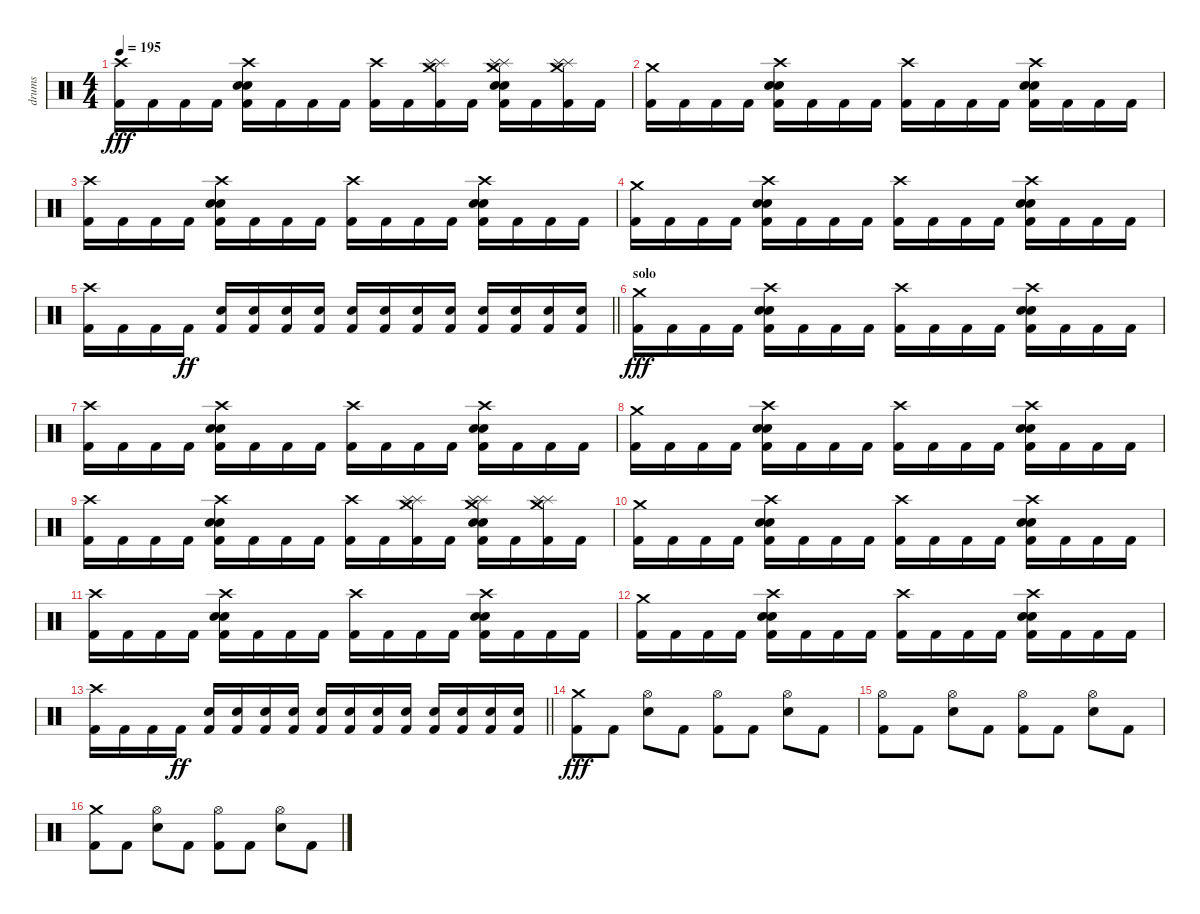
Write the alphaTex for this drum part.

\track ("drums" "drums") {instrument percussion bank 16}
\staff {score}
\articulation defaults
\ts (4 4)
\tempo 195
\clef neutral
\ks c
("Crash high (hit)" "Kick (hit) 2").16{dy fff} "Kick (hit) 2".16 "Kick (hit) 2".16 "Kick (hit) 2".16 ("Crash high (hit)" "Electric Snare (hit)" "Electric Snare (hit)" "Kick (hit) 2").16 "Kick (hit) 2".16 "Kick (hit) 2".16 "Kick (hit) 2".16 ("Crash high (hit)" "Kick (hit) 2").16 "Kick (hit) 2".16 ("Splash (hit)" "Splash (hit)" "Crash medium (hit)" "Kick (hit) 2").16 "Kick (hit) 2".16 ("Splash (hit)" "Splash (hit)" "Crash medium (hit)" "Electric Snare (hit)" "Electric Snare (hit)" "Kick (hit) 2").16 "Kick (hit) 2".16 ("Splash (hit)" "Splash (hit)" "Crash medium (hit)" "Kick (hit) 2").16 "Kick (hit) 2".16 |
("Crash medium (hit)" "Kick (hit) 2").16 "Kick (hit) 2".16 "Kick (hit) 2".16 "Kick (hit) 2".16 ("Crash high (hit)" "Electric Snare (hit)" "Electric Snare (hit)" "Kick (hit) 2").16 "Kick (hit) 2".16 "Kick (hit) 2".16 "Kick (hit) 2".16 ("Crash high (hit)" "Kick (hit) 2").16 "Kick (hit) 2".16 "Kick (hit) 2".16 "Kick (hit) 2".16 ("Crash high (hit)" "Electric Snare (hit)" "Electric Snare (hit)" "Kick (hit) 2").16 "Kick (hit) 2".16 "Kick (hit) 2".16 "Kick (hit) 2".16 |
("Crash high (hit)" "Kick (hit) 2").16 "Kick (hit) 2".16 "Kick (hit) 2".16 "Kick (hit) 2".16 ("Crash high (hit)" "Electric Snare (hit)" "Electric Snare (hit)" "Kick (hit) 2").16 "Kick (hit) 2".16 "Kick (hit) 2".16 "Kick (hit) 2".16 ("Crash high (hit)" "Kick (hit) 2").16 "Kick (hit) 2".16 "Kick (hit) 2".16 "Kick (hit) 2".16 ("Crash high (hit)" "Electric Snare (hit)" "Electric Snare (hit)" "Kick (hit) 2").16 "Kick (hit) 2".16 "Kick (hit) 2".16 "Kick (hit) 2".16 |
("Crash medium (hit)" "Kick (hit) 2").16 "Kick (hit) 2".16 "Kick (hit) 2".16 "Kick (hit) 2".16 ("Crash high (hit)" "Electric Snare (hit)" "Electric Snare (hit)" "Kick (hit) 2").16 "Kick (hit) 2".16 "Kick (hit) 2".16 "Kick (hit) 2".16 ("Crash high (hit)" "Kick (hit) 2").16 "Kick (hit) 2".16 "Kick (hit) 2".16 "Kick (hit) 2".16 ("Crash high (hit)" "Electric Snare (hit)" "Electric Snare (hit)" "Kick (hit) 2").16 "Kick (hit) 2".16 "Kick (hit) 2".16 "Kick (hit) 2".16 |
\barLineRight lightlight
("Crash high (hit)" "Kick (hit) 2").16 "Kick (hit) 2".16 "Kick (hit) 2".16 "Kick (hit) 2".16{dy ff} ("Electric Snare (hit)" "Kick (hit) 2").16 ("Electric Snare (hit)" "Kick (hit) 2").16 ("Electric Snare (hit)" "Kick (hit) 2").16 ("Electric Snare (hit)" "Kick (hit) 2").16 ("Electric Snare (hit)" "Kick (hit) 2").16 ("Electric Snare (hit)" "Kick (hit) 2").16 ("Electric Snare (hit)" "Kick (hit) 2").16 ("Electric Snare (hit)" "Kick (hit) 2").16 ("Electric Snare (hit)" "Kick (hit) 2").16 ("Electric Snare (hit)" "Kick (hit) 2").16 ("Electric Snare (hit)" "Kick (hit) 2").16 ("Electric Snare (hit)" "Kick (hit) 2").16 |
\section ("" "solo")
("Crash medium (hit)" "Kick (hit) 2").16{dy fff} "Kick (hit) 2".16 "Kick (hit) 2".16 "Kick (hit) 2".16 ("Crash high (hit)" "Electric Snare (hit)" "Electric Snare (hit)" "Kick (hit) 2").16 "Kick (hit) 2".16 "Kick (hit) 2".16 "Kick (hit) 2".16 ("Crash high (hit)" "Kick (hit) 2").16 "Kick (hit) 2".16 "Kick (hit) 2".16 "Kick (hit) 2".16 ("Crash high (hit)" "Electric Snare (hit)" "Electric Snare (hit)" "Kick (hit) 2").16 "Kick (hit) 2".16 "Kick (hit) 2".16 "Kick (hit) 2".16 |
("Crash high (hit)" "Kick (hit) 2").16 "Kick (hit) 2".16 "Kick (hit) 2".16 "Kick (hit) 2".16 ("Crash high (hit)" "Electric Snare (hit)" "Electric Snare (hit)" "Kick (hit) 2").16 "Kick (hit) 2".16 "Kick (hit) 2".16 "Kick (hit) 2".16 ("Crash high (hit)" "Kick (hit) 2").16 "Kick (hit) 2".16 "Kick (hit) 2".16 "Kick (hit) 2".16 ("Crash high (hit)" "Electric Snare (hit)" "Electric Snare (hit)" "Kick (hit) 2").16 "Kick (hit) 2".16 "Kick (hit) 2".16 "Kick (hit) 2".16 |
("Crash medium (hit)" "Kick (hit) 2").16 "Kick (hit) 2".16 "Kick (hit) 2".16 "Kick (hit) 2".16 ("Crash high (hit)" "Electric Snare (hit)" "Electric Snare (hit)" "Kick (hit) 2").16 "Kick (hit) 2".16 "Kick (hit) 2".16 "Kick (hit) 2".16 ("Crash high (hit)" "Kick (hit) 2").16 "Kick (hit) 2".16 "Kick (hit) 2".16 "Kick (hit) 2".16 ("Crash high (hit)" "Electric Snare (hit)" "Electric Snare (hit)" "Kick (hit) 2").16 "Kick (hit) 2".16 "Kick (hit) 2".16 "Kick (hit) 2".16 |
("Crash high (hit)" "Kick (hit) 2").16 "Kick (hit) 2".16 "Kick (hit) 2".16 "Kick (hit) 2".16 ("Crash high (hit)" "Electric Snare (hit)" "Electric Snare (hit)" "Kick (hit) 2").16 "Kick (hit) 2".16 "Kick (hit) 2".16 "Kick (hit) 2".16 ("Crash high (hit)" "Kick (hit) 2").16 "Kick (hit) 2".16 ("Splash (hit)" "Splash (hit)" "Crash medium (hit)" "Kick (hit) 2").16 "Kick (hit) 2".16 ("Splash (hit)" "Splash (hit)" "Crash medium (hit)" "Electric Snare (hit)" "Electric Snare (hit)" "Kick (hit) 2").16 "Kick (hit) 2".16 ("Splash (hit)" "Splash (hit)" "Crash medium (hit)" "Kick (hit) 2").16 "Kick (hit) 2".16 |
("Crash medium (hit)" "Kick (hit) 2").16 "Kick (hit) 2".16 "Kick (hit) 2".16 "Kick (hit) 2".16 ("Crash high (hit)" "Electric Snare (hit)" "Electric Snare (hit)" "Kick (hit) 2").16 "Kick (hit) 2".16 "Kick (hit) 2".16 "Kick (hit) 2".16 ("Crash high (hit)" "Kick (hit) 2").16 "Kick (hit) 2".16 "Kick (hit) 2".16 "Kick (hit) 2".16 ("Crash high (hit)" "Electric Snare (hit)" "Electric Snare (hit)" "Kick (hit) 2").16 "Kick (hit) 2".16 "Kick (hit) 2".16 "Kick (hit) 2".16 |
("Crash high (hit)" "Kick (hit) 2").16 "Kick (hit) 2".16 "Kick (hit) 2".16 "Kick (hit) 2".16 ("Crash high (hit)" "Electric Snare (hit)" "Electric Snare (hit)" "Kick (hit) 2").16 "Kick (hit) 2".16 "Kick (hit) 2".16 "Kick (hit) 2".16 ("Crash high (hit)" "Kick (hit) 2").16 "Kick (hit) 2".16 "Kick (hit) 2".16 "Kick (hit) 2".16 ("Crash high (hit)" "Electric Snare (hit)" "Electric Snare (hit)" "Kick (hit) 2").16 "Kick (hit) 2".16 "Kick (hit) 2".16 "Kick (hit) 2".16 |
("Crash medium (hit)" "Kick (hit) 2").16 "Kick (hit) 2".16 "Kick (hit) 2".16 "Kick (hit) 2".16 ("Crash high (hit)" "Electric Snare (hit)" "Electric Snare (hit)" "Kick (hit) 2").16 "Kick (hit) 2".16 "Kick (hit) 2".16 "Kick (hit) 2".16 ("Crash high (hit)" "Kick (hit) 2").16 "Kick (hit) 2".16 "Kick (hit) 2".16 "Kick (hit) 2".16 ("Crash high (hit)" "Electric Snare (hit)" "Electric Snare (hit)" "Kick (hit) 2").16 "Kick (hit) 2".16 "Kick (hit) 2".16 "Kick (hit) 2".16 |
\barLineRight lightlight
("Crash high (hit)" "Kick (hit) 2").16 "Kick (hit) 2".16 "Kick (hit) 2".16 "Kick (hit) 2".16{dy ff} ("Electric Snare (hit)" "Kick (hit) 2").16 ("Electric Snare (hit)" "Kick (hit) 2").16 ("Electric Snare (hit)" "Kick (hit) 2").16 ("Electric Snare (hit)" "Kick (hit) 2").16 ("Electric Snare (hit)" "Kick (hit) 2").16 ("Electric Snare (hit)" "Kick (hit) 2").16 ("Electric Snare (hit)" "Kick (hit) 2").16 ("Electric Snare (hit)" "Kick (hit) 2").16 ("Electric Snare (hit)" "Kick (hit) 2").16 ("Electric Snare (hit)" "Kick (hit) 2").16 ("Electric Snare (hit)" "Kick (hit) 2").16 ("Electric Snare (hit)" "Kick (hit) 2").16 |
("Crash medium (hit)" "Kick (hit) 2").8{dy fff} "Kick (hit) 2".8 ("Hi-Hat (open)" "Electric Snare (hit)").8 "Kick (hit) 2".8 ("Hi-Hat (open)" "Kick (hit) 2").8 "Kick (hit) 2".8 ("Hi-Hat (open)" "Electric Snare (hit)").8 "Kick (hit) 2".8 |
("Hi-Hat (open)" "Kick (hit) 2").8 "Kick (hit) 2".8 ("Hi-Hat (open)" "Electric Snare (hit)").8 "Kick (hit) 2".8 ("Hi-Hat (open)" "Kick (hit) 2").8 "Kick (hit) 2".8 ("Hi-Hat (open)" "Electric Snare (hit)").8 "Kick (hit) 2".8 |
("Crash medium (hit)" "Kick (hit) 2").8 "Kick (hit) 2".8 ("Hi-Hat (open)" "Electric Snare (hit)").8 "Kick (hit) 2".8 ("Hi-Hat (open)" "Kick (hit) 2").8 "Kick (hit) 2".8 ("Hi-Hat (open)" "Electric Snare (hit)").8 "Kick (hit) 2".8
